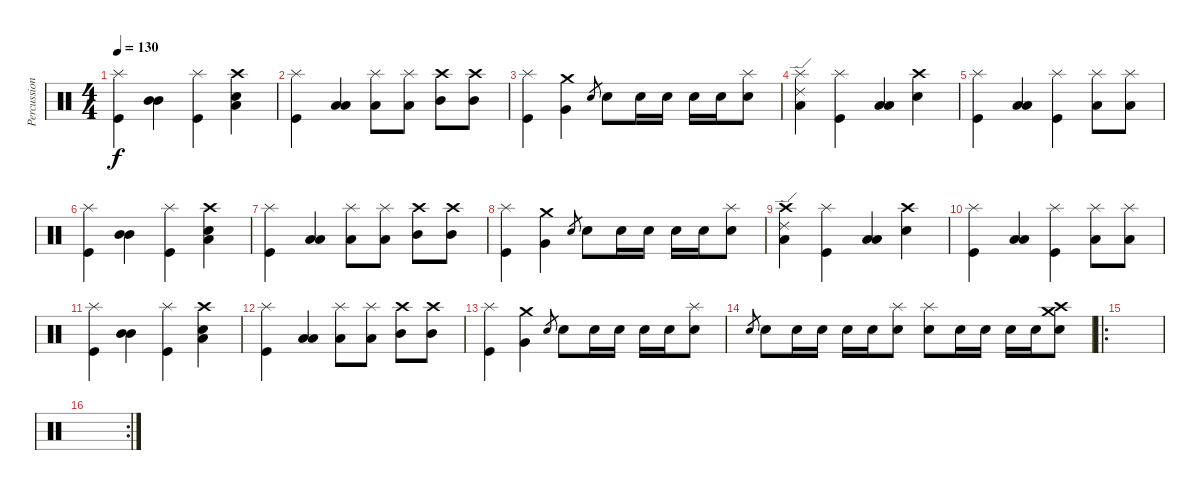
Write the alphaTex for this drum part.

\track ("Percussion" "Percussion") {instrument percussion}
\staff {score}
\articulation defaults
\ts (4 4)
\tempo 130
\clef neutral
\ks c
("Splash (hit)" "Kick (hit)").4{dy f} ("Mid Tom (hit)" "Mid Tom (hit)").4 ("Splash (hit)" "Kick (hit)").4 ("Crash high (hit)" "Electric Snare (hit)" "Low Floor Tom (hit)").4 |
("Splash (hit)" "Kick (hit)").4 ("Low Tom (hit)" "Low Tom (hit)").4 ("Splash (hit)" "Low Tom (hit)").8 ("Splash (hit)" "Low Tom (hit)").8 ("Crash high (hit)" "Mid Tom (hit)").8 ("Crash high (hit)" "Mid Tom (hit)").8 |
("Splash (hit)" "Kick (hit)").4 ("Crash medium (hit)" "Very Low Tom (hit)").4 "Snare (hit) 2".8{gr} "Snare (hit) 2".8 "Snare (hit) 2".16 "Snare (hit) 2".16 "Snare (hit) 2".16 "Snare (hit) 2".16 ("Splash (hit)" "Electric Snare (hit)").8 |
("Ride (edge) 2" "Splash (hit)" "Low Tom (hit)").4 ("Splash (hit)" "Kick (hit)").4 ("Low Tom (hit)" "Low Tom (hit)").4 ("Crash high (hit)" "Electric Snare (hit)").4 |
("Splash (hit)" "Kick (hit)").4 ("Low Tom (hit)" "Low Tom (hit)").4 ("Splash (hit)" "Kick (hit)").4 ("Splash (hit)" "Low Floor Tom (hit)").8 ("Splash (hit)" "Low Floor Tom (hit)").8 |
("Splash (hit)" "Kick (hit)").4 ("Mid Tom (hit)" "Mid Tom (hit)").4 ("Splash (hit)" "Kick (hit)").4 ("Crash high (hit)" "Electric Snare (hit)" "Low Floor Tom (hit)").4 |
("Splash (hit)" "Kick (hit)").4 ("Low Tom (hit)" "Low Tom (hit)").4 ("Splash (hit)" "Low Tom (hit)").8 ("Splash (hit)" "Low Tom (hit)").8 ("Crash high (hit)" "Mid Tom (hit)").8 ("Crash high (hit)" "Mid Tom (hit)").8 |
("Splash (hit)" "Kick (hit)").4 ("Crash medium (hit)" "Very Low Tom (hit)").4 "Snare (hit) 2".8{gr} "Snare (hit) 2".8 "Snare (hit) 2".16 "Snare (hit) 2".16 "Snare (hit) 2".16 "Snare (hit) 2".16 ("Splash (hit)" "Electric Snare (hit)").8 |
("Ride (edge) 2" "Crash high (hit)" "Low Tom (hit)").4 ("Splash (hit)" "Kick (hit)").4 ("Low Tom (hit)" "Low Tom (hit)").4 ("Crash high (hit)" "Electric Snare (hit)").4 |
("Splash (hit)" "Kick (hit)").4 ("Low Tom (hit)" "Low Tom (hit)").4 ("Splash (hit)" "Kick (hit)").4 ("Splash (hit)" "Low Floor Tom (hit)").8 ("Splash (hit)" "Low Floor Tom (hit)").8 |
("Splash (hit)" "Kick (hit)").4 ("Mid Tom (hit)" "Mid Tom (hit)").4 ("Splash (hit)" "Kick (hit)").4 ("Crash high (hit)" "Electric Snare (hit)" "Low Floor Tom (hit)").4 |
("Splash (hit)" "Kick (hit)").4 ("Low Tom (hit)" "Low Tom (hit)").4 ("Splash (hit)" "Low Tom (hit)").8 ("Splash (hit)" "Low Tom (hit)").8 ("Crash high (hit)" "Mid Tom (hit)").8 ("Crash high (hit)" "Mid Tom (hit)").8 |
("Splash (hit)" "Kick (hit)").4 ("Crash medium (hit)" "Very Low Tom (hit)").4 "Snare (hit) 2".8{gr} "Snare (hit) 2".8 "Snare (hit) 2".16 "Snare (hit) 2".16 "Snare (hit) 2".16 "Snare (hit) 2".16 ("Splash (hit)" "Electric Snare (hit)").8 |
"Snare (hit) 2".8{gr} "Snare (hit) 2".8 "Snare (hit) 2".16 "Snare (hit) 2".16 "Snare (hit) 2".16 "Snare (hit) 2".16 ("Splash (hit)" "Electric Snare (hit)").8 ("Splash (hit)" "Electric Snare (hit)").8 "Electric Snare (hit)".16 "Electric Snare (hit)".16 "Electric Snare (hit)".16 "Electric Snare (hit)".16 ("Crash medium (hit)" "Crash high (hit)" "Electric Snare (hit)").8 |
\ro
|
\rc 2
